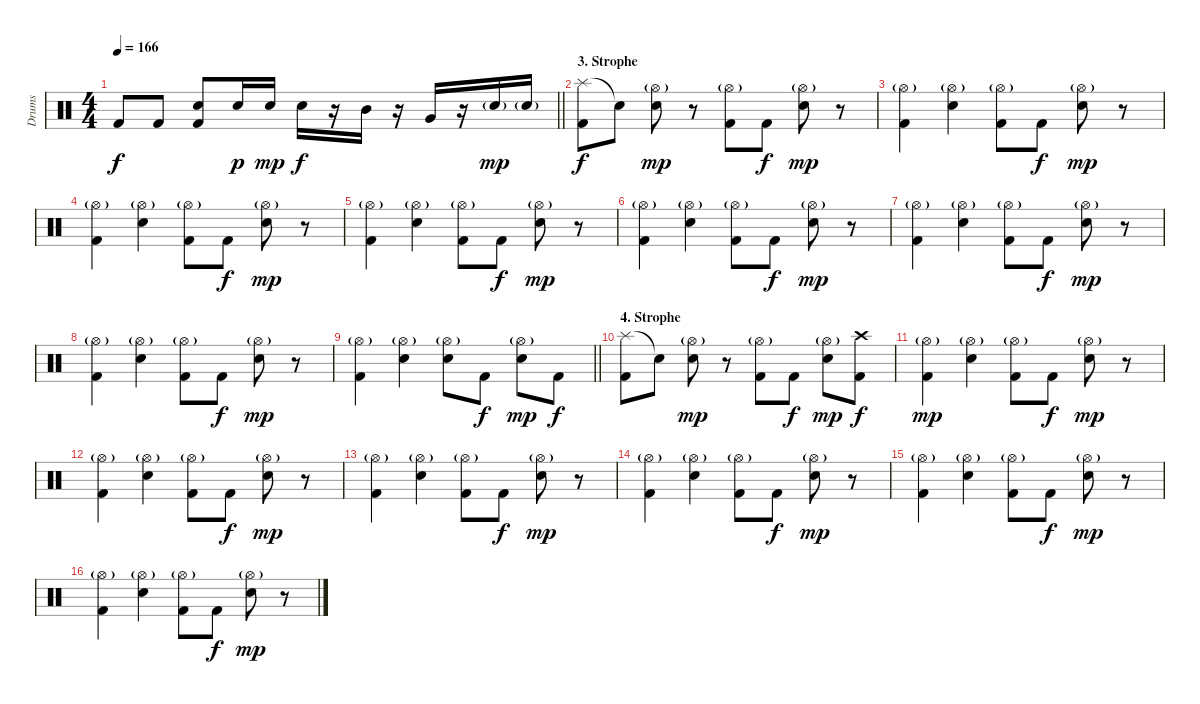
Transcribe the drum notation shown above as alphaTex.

\track ("Drums" "Drums") {instrument percussion}
\staff {score}
\articulation defaults
\ts (4 4)
\tempo 166
\clef neutral
\barLineRight lightlight
\ks c "Kick (hit) 2".8{dy f} "Kick (hit) 2".8
("Kick (hit) 2" "Electric Snare (hit)").8 "Electric Snare (hit)".16{dy p} "Electric Snare (hit)".16{dy mp} "Electric Snare (hit)".16{dy f} r.16 "Mid Tom (hit)".16 r.16 "Very Low Tom (hit)".16 r.16 "Electric Snare (hit)"{g}.16{dy mp} "Electric Snare (hit)"{g}.16 |
\section ("" "3. Strophe")
("Splash (hit)" "Kick (hit) 2").8{dy f} "Snare (hit)"{t}.8 ("Hi-Hat (open)"{g} "Electric Snare (hit)").8{dy mp} r.8 ("Hi-Hat (open)"{g} "Kick (hit) 2").8 "Kick (hit) 2".8{dy f} ("Hi-Hat (open)"{g} "Electric Snare (hit)").8{dy mp} r.8 |
("Hi-Hat (open)"{g} "Kick (hit) 2").4 ("Hi-Hat (open)"{g} "Electric Snare (hit)").4 ("Hi-Hat (open)"{g} "Kick (hit) 2").8 "Kick (hit) 2".8{dy f} ("Hi-Hat (open)"{g} "Electric Snare (hit)").8{dy mp} r.8 |
("Hi-Hat (open)"{g} "Kick (hit) 2").4 ("Hi-Hat (open)"{g} "Electric Snare (hit)").4 ("Hi-Hat (open)"{g} "Kick (hit) 2").8 "Kick (hit) 2".8{dy f} ("Hi-Hat (open)"{g} "Electric Snare (hit)").8{dy mp} r.8 |
("Hi-Hat (open)"{g} "Kick (hit) 2").4 ("Hi-Hat (open)"{g} "Electric Snare (hit)").4 ("Hi-Hat (open)"{g} "Kick (hit) 2").8 "Kick (hit) 2".8{dy f} ("Hi-Hat (open)"{g} "Electric Snare (hit)").8{dy mp} r.8 |
("Hi-Hat (open)"{g} "Kick (hit) 2").4 ("Hi-Hat (open)"{g} "Electric Snare (hit)").4 ("Hi-Hat (open)"{g} "Kick (hit) 2").8 "Kick (hit) 2".8{dy f} ("Hi-Hat (open)"{g} "Electric Snare (hit)").8{dy mp} r.8 |
("Hi-Hat (open)"{g} "Kick (hit) 2").4 ("Hi-Hat (open)"{g} "Electric Snare (hit)").4 ("Hi-Hat (open)"{g} "Kick (hit) 2").8 "Kick (hit) 2".8{dy f} ("Hi-Hat (open)"{g} "Electric Snare (hit)").8{dy mp} r.8 |
("Hi-Hat (open)"{g} "Kick (hit) 2").4 ("Hi-Hat (open)"{g} "Electric Snare (hit)").4 ("Hi-Hat (open)"{g} "Kick (hit) 2").8 "Kick (hit) 2".8{dy f} ("Hi-Hat (open)"{g} "Electric Snare (hit)").8{dy mp} r.8 |
\barLineRight lightlight
("Hi-Hat (open)"{g} "Kick (hit) 2").4 ("Hi-Hat (open)"{g} "Electric Snare (hit)").4 ("Hi-Hat (open)"{g} "Electric Snare (hit)").8 "Kick (hit) 2".8{dy f} ("Hi-Hat (open)"{g} "Electric Snare (hit)").8{dy mp} "Kick (hit) 2".8{dy f} |
\section ("" "4. Strophe")
("Splash (hit)" "Kick (hit) 2").8 "Snare (hit)"{t}.8 ("Hi-Hat (open)"{g} "Electric Snare (hit)").8{dy mp} r.8 ("Hi-Hat (open)"{g} "Kick (hit) 2").8 "Kick (hit) 2".8{dy f} ("Hi-Hat (open)"{g} "Electric Snare (hit)").8{dy mp} ("Crash high (hit)" "Kick (hit) 2").8{dy f} |
("Hi-Hat (open)"{g} "Kick (hit) 2").4{dy mp} ("Hi-Hat (open)"{g} "Electric Snare (hit)").4 ("Hi-Hat (open)"{g} "Kick (hit) 2").8 "Kick (hit) 2".8{dy f} ("Hi-Hat (open)"{g} "Electric Snare (hit)").8{dy mp} r.8 |
("Hi-Hat (open)"{g} "Kick (hit) 2").4 ("Hi-Hat (open)"{g} "Electric Snare (hit)").4 ("Hi-Hat (open)"{g} "Kick (hit) 2").8 "Kick (hit) 2".8{dy f} ("Hi-Hat (open)"{g} "Electric Snare (hit)").8{dy mp} r.8 |
("Hi-Hat (open)"{g} "Kick (hit) 2").4 ("Hi-Hat (open)"{g} "Electric Snare (hit)").4 ("Hi-Hat (open)"{g} "Kick (hit) 2").8 "Kick (hit) 2".8{dy f} ("Hi-Hat (open)"{g} "Electric Snare (hit)").8{dy mp} r.8 |
("Hi-Hat (open)"{g} "Kick (hit) 2").4 ("Hi-Hat (open)"{g} "Electric Snare (hit)").4 ("Hi-Hat (open)"{g} "Kick (hit) 2").8 "Kick (hit) 2".8{dy f} ("Hi-Hat (open)"{g} "Electric Snare (hit)").8{dy mp} r.8 |
("Hi-Hat (open)"{g} "Kick (hit) 2").4 ("Hi-Hat (open)"{g} "Electric Snare (hit)").4 ("Hi-Hat (open)"{g} "Kick (hit) 2").8 "Kick (hit) 2".8{dy f} ("Hi-Hat (open)"{g} "Electric Snare (hit)").8{dy mp} r.8 |
("Hi-Hat (open)"{g} "Kick (hit) 2").4 ("Hi-Hat (open)"{g} "Electric Snare (hit)").4 ("Hi-Hat (open)"{g} "Kick (hit) 2").8 "Kick (hit) 2".8{dy f} ("Hi-Hat (open)"{g} "Electric Snare (hit)").8{dy mp} r.8
